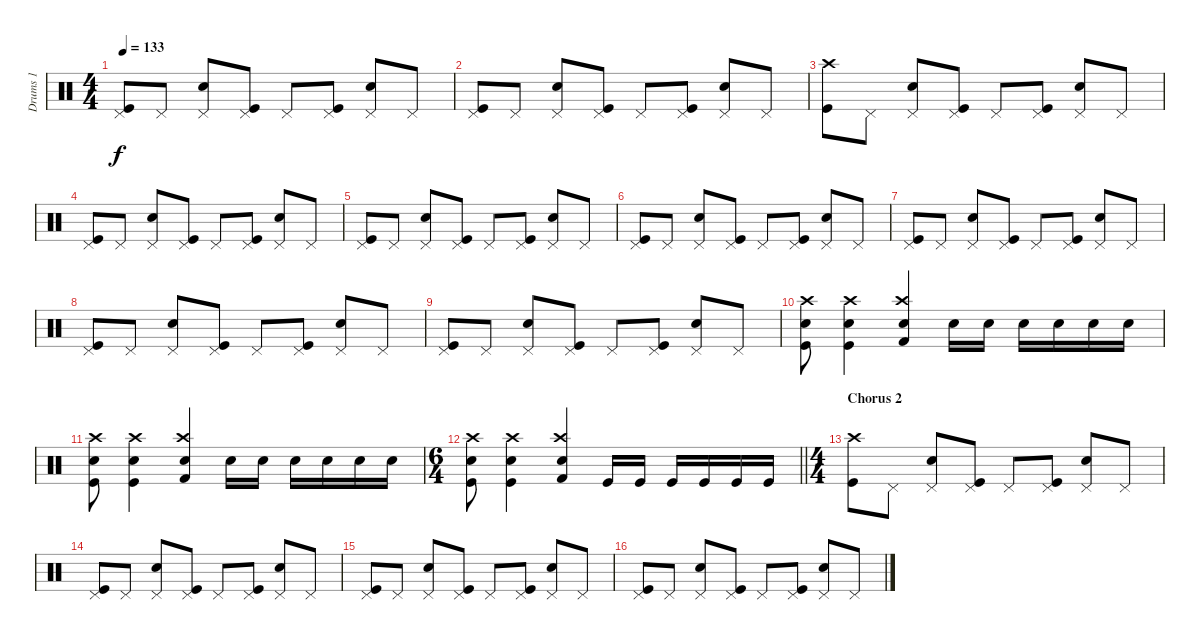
\track ("Drums 1" "Drums 1") {instrument percussion}
\staff {score}
\articulation defaults
\ts (4 4)
\tempo 133
\clef neutral
\ks c
("Pedal Hi-Hat (hit)" "Kick (hit)").8{dy f} "Pedal Hi-Hat (hit)".8 ("Pedal Hi-Hat (hit)" "Electric Snare (hit)").8 ("Pedal Hi-Hat (hit)" "Kick (hit)").8 "Pedal Hi-Hat (hit)".8 ("Pedal Hi-Hat (hit)" "Kick (hit)").8 ("Pedal Hi-Hat (hit)" "Electric Snare (hit)").8 "Pedal Hi-Hat (hit)".8 |
("Pedal Hi-Hat (hit)" "Kick (hit)").8 "Pedal Hi-Hat (hit)".8 ("Pedal Hi-Hat (hit)" "Electric Snare (hit)").8 ("Pedal Hi-Hat (hit)" "Kick (hit)").8 "Pedal Hi-Hat (hit)".8 ("Pedal Hi-Hat (hit)" "Kick (hit)").8 ("Pedal Hi-Hat (hit)" "Electric Snare (hit)").8 "Pedal Hi-Hat (hit)".8 |
("Crash high (hit)" "Kick (hit)").8 "Pedal Hi-Hat (hit)".8 ("Pedal Hi-Hat (hit)" "Electric Snare (hit)").8 ("Pedal Hi-Hat (hit)" "Kick (hit)").8 "Pedal Hi-Hat (hit)".8 ("Pedal Hi-Hat (hit)" "Kick (hit)").8 ("Pedal Hi-Hat (hit)" "Electric Snare (hit)").8 "Pedal Hi-Hat (hit)".8 |
("Pedal Hi-Hat (hit)" "Kick (hit)").8 "Pedal Hi-Hat (hit)".8 ("Pedal Hi-Hat (hit)" "Electric Snare (hit)").8 ("Pedal Hi-Hat (hit)" "Kick (hit)").8 "Pedal Hi-Hat (hit)".8 ("Pedal Hi-Hat (hit)" "Kick (hit)").8 ("Pedal Hi-Hat (hit)" "Electric Snare (hit)").8 "Pedal Hi-Hat (hit)".8 |
("Pedal Hi-Hat (hit)" "Kick (hit)").8 "Pedal Hi-Hat (hit)".8 ("Pedal Hi-Hat (hit)" "Electric Snare (hit)").8 ("Pedal Hi-Hat (hit)" "Kick (hit)").8 "Pedal Hi-Hat (hit)".8 ("Pedal Hi-Hat (hit)" "Kick (hit)").8 ("Pedal Hi-Hat (hit)" "Electric Snare (hit)").8 "Pedal Hi-Hat (hit)".8 |
("Pedal Hi-Hat (hit)" "Kick (hit)").8 "Pedal Hi-Hat (hit)".8 ("Pedal Hi-Hat (hit)" "Electric Snare (hit)").8 ("Pedal Hi-Hat (hit)" "Kick (hit)").8 "Pedal Hi-Hat (hit)".8 ("Pedal Hi-Hat (hit)" "Kick (hit)").8 ("Pedal Hi-Hat (hit)" "Electric Snare (hit)").8 "Pedal Hi-Hat (hit)".8 |
("Pedal Hi-Hat (hit)" "Kick (hit)").8 "Pedal Hi-Hat (hit)".8 ("Pedal Hi-Hat (hit)" "Electric Snare (hit)").8 ("Pedal Hi-Hat (hit)" "Kick (hit)").8 "Pedal Hi-Hat (hit)".8 ("Pedal Hi-Hat (hit)" "Kick (hit)").8 ("Pedal Hi-Hat (hit)" "Electric Snare (hit)").8 "Pedal Hi-Hat (hit)".8 |
("Pedal Hi-Hat (hit)" "Kick (hit)").8 "Pedal Hi-Hat (hit)".8 ("Pedal Hi-Hat (hit)" "Electric Snare (hit)").8 ("Pedal Hi-Hat (hit)" "Kick (hit)").8 "Pedal Hi-Hat (hit)".8 ("Pedal Hi-Hat (hit)" "Kick (hit)").8 ("Pedal Hi-Hat (hit)" "Electric Snare (hit)").8 "Pedal Hi-Hat (hit)".8 |
("Pedal Hi-Hat (hit)" "Kick (hit)").8 "Pedal Hi-Hat (hit)".8 ("Pedal Hi-Hat (hit)" "Electric Snare (hit)").8 ("Pedal Hi-Hat (hit)" "Kick (hit)").8 "Pedal Hi-Hat (hit)".8 ("Pedal Hi-Hat (hit)" "Kick (hit)").8 ("Pedal Hi-Hat (hit)" "Electric Snare (hit)").8 "Pedal Hi-Hat (hit)".8 |
("Crash high (hit)" "Electric Snare (hit)" "Kick (hit)").8 ("Crash high (hit)" "Electric Snare (hit)" "Kick (hit)").4 ("Electric Snare (hit)" "Kick (hit) 2" "Crash high (hit)").4 "Electric Snare (hit)".16 "Electric Snare (hit)".16 "Electric Snare (hit)".16 "Electric Snare (hit)".16 "Electric Snare (hit)".16 "Electric Snare (hit)".16 |
("Crash high (hit)" "Electric Snare (hit)" "Kick (hit)").8 ("Crash high (hit)" "Electric Snare (hit)" "Kick (hit)").4 ("Electric Snare (hit)" "Kick (hit) 2" "Crash high (hit)").4 "Electric Snare (hit)".16 "Electric Snare (hit)".16 "Electric Snare (hit)".16 "Electric Snare (hit)".16 "Electric Snare (hit)".16 "Electric Snare (hit)".16 |
\ts (6 4)
\barLineRight lightlight
("Crash high (hit)" "Electric Snare (hit)" "Kick (hit)").8 ("Crash high (hit)" "Electric Snare (hit)" "Kick (hit)").4 ("Electric Snare (hit)" "Kick (hit) 2" "Crash high (hit)").4 "Kick (hit)".16 "Kick (hit)".16 "Kick (hit)".16 "Kick (hit)".16 "Kick (hit)".16 "Kick (hit)".16 |
\ts (4 4)
\section ("" "Chorus 2")
("Crash high (hit)" "Kick (hit)").8 "Pedal Hi-Hat (hit)".8 ("Pedal Hi-Hat (hit)" "Electric Snare (hit)").8 ("Pedal Hi-Hat (hit)" "Kick (hit)").8 "Pedal Hi-Hat (hit)".8 ("Pedal Hi-Hat (hit)" "Kick (hit)").8 ("Pedal Hi-Hat (hit)" "Electric Snare (hit)").8 "Pedal Hi-Hat (hit)".8 |
("Pedal Hi-Hat (hit)" "Kick (hit)").8 "Pedal Hi-Hat (hit)".8 ("Pedal Hi-Hat (hit)" "Electric Snare (hit)").8 ("Pedal Hi-Hat (hit)" "Kick (hit)").8 "Pedal Hi-Hat (hit)".8 ("Pedal Hi-Hat (hit)" "Kick (hit)").8 ("Pedal Hi-Hat (hit)" "Electric Snare (hit)").8 "Pedal Hi-Hat (hit)".8 |
("Pedal Hi-Hat (hit)" "Kick (hit)").8 "Pedal Hi-Hat (hit)".8 ("Pedal Hi-Hat (hit)" "Electric Snare (hit)").8 ("Pedal Hi-Hat (hit)" "Kick (hit)").8 "Pedal Hi-Hat (hit)".8 ("Pedal Hi-Hat (hit)" "Kick (hit)").8 ("Pedal Hi-Hat (hit)" "Electric Snare (hit)").8 "Pedal Hi-Hat (hit)".8 |
("Pedal Hi-Hat (hit)" "Kick (hit)").8 "Pedal Hi-Hat (hit)".8 ("Pedal Hi-Hat (hit)" "Electric Snare (hit)").8 ("Pedal Hi-Hat (hit)" "Kick (hit)").8 "Pedal Hi-Hat (hit)".8 ("Pedal Hi-Hat (hit)" "Kick (hit)").8 ("Pedal Hi-Hat (hit)" "Electric Snare (hit)").8 "Pedal Hi-Hat (hit)".8
